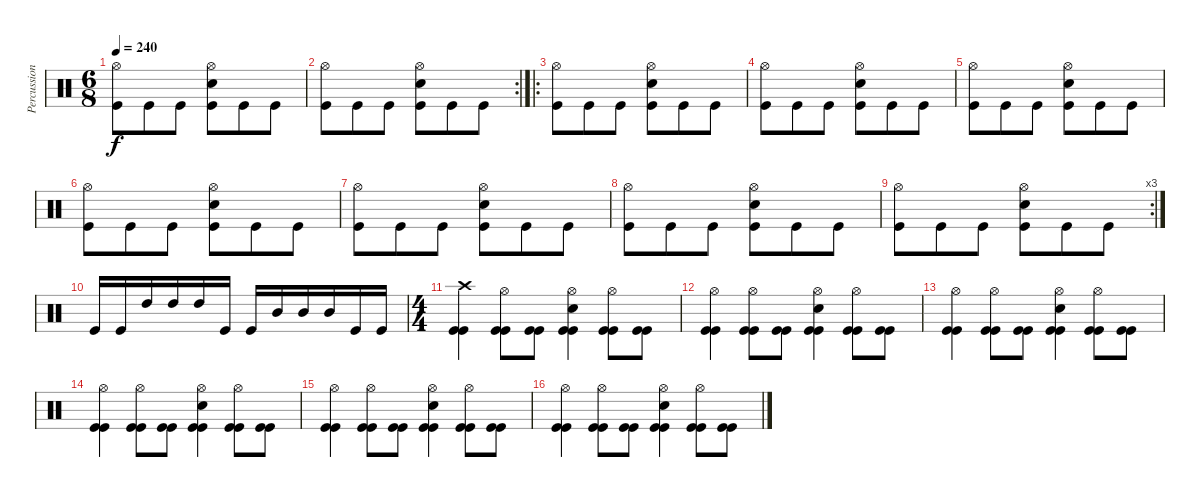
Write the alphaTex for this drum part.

\track ("Percussion" "Percussion") {instrument percussion}
\staff {score}
\articulation defaults
\ts (6 8)
\tempo 240
\clef neutral
\ks c
("Hi-Hat (open)" "Kick (hit)").8{dy f} "Kick (hit)".8 "Kick (hit)".8 ("Hi-Hat (open)" "Snare (hit) 2" "Kick (hit)").8 "Kick (hit)".8 "Kick (hit)".8 |
\rc 2
("Hi-Hat (open)" "Kick (hit)").8 "Kick (hit)".8 "Kick (hit)".8 ("Hi-Hat (open)" "Snare (hit) 2" "Kick (hit)").8 "Kick (hit)".8 "Kick (hit)".8 |
\ro
("Hi-Hat (open)" "Kick (hit)").8 "Kick (hit)".8 "Kick (hit)".8 ("Hi-Hat (open)" "Snare (hit) 2" "Kick (hit)").8 "Kick (hit)".8 "Kick (hit)".8 |
("Hi-Hat (open)" "Kick (hit)").8 "Kick (hit)".8 "Kick (hit)".8 ("Hi-Hat (open)" "Snare (hit) 2" "Kick (hit)").8 "Kick (hit)".8 "Kick (hit)".8 |
("Hi-Hat (open)" "Kick (hit)").8 "Kick (hit)".8 "Kick (hit)".8 ("Hi-Hat (open)" "Snare (hit) 2" "Kick (hit)").8 "Kick (hit)".8 "Kick (hit)".8 |
("Hi-Hat (open)" "Kick (hit)").8 "Kick (hit)".8 "Kick (hit)".8 ("Hi-Hat (open)" "Snare (hit) 2" "Kick (hit)").8 "Kick (hit)".8 "Kick (hit)".8 |
("Hi-Hat (open)" "Kick (hit)").8 "Kick (hit)".8 "Kick (hit)".8 ("Hi-Hat (open)" "Snare (hit) 2" "Kick (hit)").8 "Kick (hit)".8 "Kick (hit)".8 |
("Hi-Hat (open)" "Kick (hit)").8 "Kick (hit)".8 "Kick (hit)".8 ("Hi-Hat (open)" "Snare (hit) 2" "Kick (hit)").8 "Kick (hit)".8 "Kick (hit)".8 |
\rc 3
("Hi-Hat (open)" "Kick (hit)").8 "Kick (hit)".8 "Kick (hit)".8 ("Hi-Hat (open)" "Snare (hit) 2" "Kick (hit)").8 "Kick (hit)".8 "Kick (hit)".8 |
"Kick (hit)".16 "Kick (hit)".16 "High Tom (hit)".16 "High Tom (hit)".16 "High Tom (hit)".16 "Kick (hit)".16 "Kick (hit)".16 "Mid Tom (hit)".16 "Mid Tom (hit)".16 "Mid Tom (hit)".16 "Kick (hit)".16 "Kick (hit)".16 |
\ts (4 4)
("Crash high (hit)" "Kick (hit)" "Kick (hit)").4 ("Hi-Hat (open)" "Kick (hit)" "Kick (hit)").8 ("Kick (hit)" "Kick (hit)").8 ("Hi-Hat (open)" "Snare (hit) 2" "Kick (hit)" "Kick (hit)").4 ("Hi-Hat (open)" "Kick (hit)" "Kick (hit)").8 ("Kick (hit)" "Kick (hit)").8 |
("Hi-Hat (open)" "Kick (hit)" "Kick (hit)").4 ("Hi-Hat (open)" "Kick (hit)" "Kick (hit)").8 ("Kick (hit)" "Kick (hit)").8 ("Hi-Hat (open)" "Snare (hit) 2" "Kick (hit)" "Kick (hit)").4 ("Hi-Hat (open)" "Kick (hit)" "Kick (hit)").8 ("Kick (hit)" "Kick (hit)").8 |
("Hi-Hat (open)" "Kick (hit)" "Kick (hit)").4 ("Hi-Hat (open)" "Kick (hit)" "Kick (hit)").8 ("Kick (hit)" "Kick (hit)").8 ("Hi-Hat (open)" "Snare (hit) 2" "Kick (hit)" "Kick (hit)").4 ("Hi-Hat (open)" "Kick (hit)" "Kick (hit)").8 ("Kick (hit)" "Kick (hit)").8 |
("Hi-Hat (open)" "Kick (hit)" "Kick (hit)").4 ("Hi-Hat (open)" "Kick (hit)" "Kick (hit)").8 ("Kick (hit)" "Kick (hit)").8 ("Hi-Hat (open)" "Snare (hit) 2" "Kick (hit)" "Kick (hit)").4 ("Hi-Hat (open)" "Kick (hit)" "Kick (hit)").8 ("Kick (hit)" "Kick (hit)").8 |
("Hi-Hat (open)" "Kick (hit)" "Kick (hit)").4 ("Hi-Hat (open)" "Kick (hit)" "Kick (hit)").8 ("Kick (hit)" "Kick (hit)").8 ("Hi-Hat (open)" "Snare (hit) 2" "Kick (hit)" "Kick (hit)").4 ("Hi-Hat (open)" "Kick (hit)" "Kick (hit)").8 ("Kick (hit)" "Kick (hit)").8 |
("Hi-Hat (open)" "Kick (hit)" "Kick (hit)").4 ("Hi-Hat (open)" "Kick (hit)" "Kick (hit)").8 ("Kick (hit)" "Kick (hit)").8 ("Hi-Hat (open)" "Snare (hit) 2" "Kick (hit)" "Kick (hit)").4 ("Hi-Hat (open)" "Kick (hit)" "Kick (hit)").8 ("Kick (hit)" "Kick (hit)").8
